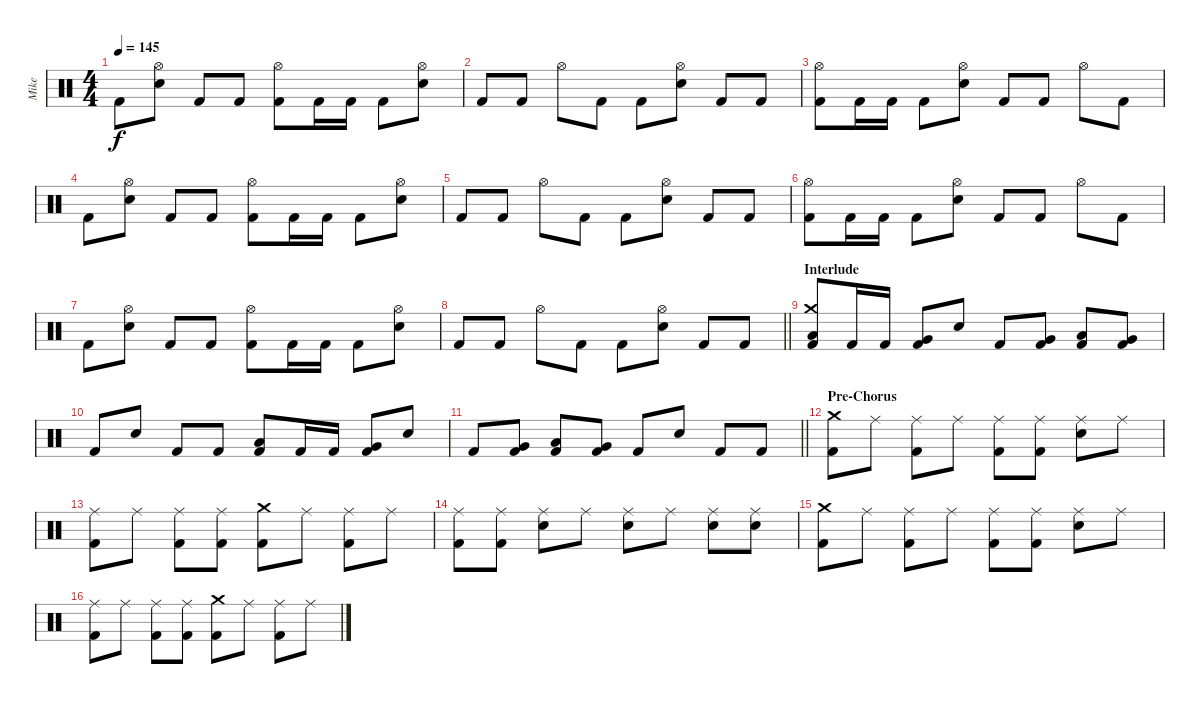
\track ("Mike" "Mike") {instrument percussion}
\staff {score}
\articulation defaults
\ts (4 4)
\tempo 145
\clef neutral
\ks c "Kick (hit) 2".8{dy f}
("Hi-Hat (open)" "Snare (hit) 2").8 "Kick (hit) 2".8 "Kick (hit) 2".8 ("Hi-Hat (open)" "Kick (hit) 2").8 "Kick (hit) 2".16 "Kick (hit) 2".16 "Kick (hit) 2".8 ("Hi-Hat (open)" "Snare (hit) 2").8 |
"Kick (hit) 2".8 "Kick (hit) 2".8 "Hi-Hat (open)".8 "Kick (hit) 2".8 "Kick (hit) 2".8 ("Hi-Hat (open)" "Snare (hit) 2").8 "Kick (hit) 2".8 "Kick (hit) 2".8 |
("Hi-Hat (open)" "Kick (hit) 2").8 "Kick (hit) 2".16 "Kick (hit) 2".16 "Kick (hit) 2".8 ("Hi-Hat (open)" "Snare (hit) 2").8 "Kick (hit) 2".8 "Kick (hit) 2".8 "Hi-Hat (open)".8 "Kick (hit) 2".8 |
"Kick (hit) 2".8 ("Hi-Hat (open)" "Snare (hit) 2").8 "Kick (hit) 2".8 "Kick (hit) 2".8 ("Hi-Hat (open)" "Kick (hit) 2").8 "Kick (hit) 2".16 "Kick (hit) 2".16 "Kick (hit) 2".8 ("Hi-Hat (open)" "Snare (hit) 2").8 |
"Kick (hit) 2".8 "Kick (hit) 2".8 "Hi-Hat (open)".8 "Kick (hit) 2".8 "Kick (hit) 2".8 ("Hi-Hat (open)" "Snare (hit) 2").8 "Kick (hit) 2".8 "Kick (hit) 2".8 |
("Hi-Hat (open)" "Kick (hit) 2").8 "Kick (hit) 2".16 "Kick (hit) 2".16 "Kick (hit) 2".8 ("Hi-Hat (open)" "Snare (hit) 2").8 "Kick (hit) 2".8 "Kick (hit) 2".8 "Hi-Hat (open)".8 "Kick (hit) 2".8 |
"Kick (hit) 2".8 ("Hi-Hat (open)" "Snare (hit) 2").8 "Kick (hit) 2".8 "Kick (hit) 2".8 ("Hi-Hat (open)" "Kick (hit) 2").8 "Kick (hit) 2".16 "Kick (hit) 2".16 "Kick (hit) 2".8 ("Hi-Hat (open)" "Snare (hit) 2").8 |
\barLineRight lightlight "Kick (hit) 2".8 "Kick (hit) 2".8 "Hi-Hat (open)".8 "Kick (hit) 2".8 "Kick (hit) 2".8
("Hi-Hat (open)" "Snare (hit) 2").8 "Kick (hit) 2".8 "Kick (hit) 2".8 |
\section ("" "Interlude")
("Crash medium (hit)" "Low Tom (hit)" "Kick (hit) 2").8 "Kick (hit) 2".16 "Kick (hit) 2".16 ("Very Low Tom (hit)" "Kick (hit) 2").8 "Snare (hit) 2".8 "Kick (hit) 2".8 ("Very Low Tom (hit)" "Kick (hit) 2").8 ("Low Floor Tom (hit)" "Kick (hit) 2").8 ("Very Low Tom (hit)" "Kick (hit) 2").8 |
"Kick (hit) 2".8 "Snare (hit) 2".8 "Kick (hit) 2".8 "Kick (hit) 2".8 ("Low Tom (hit)" "Kick (hit) 2").8 "Kick (hit) 2".16 "Kick (hit) 2".16 ("Very Low Tom (hit)" "Kick (hit) 2").8 "Snare (hit) 2".8 |
\barLineRight lightlight "Kick (hit) 2".8
("Very Low Tom (hit)" "Kick (hit) 2").8 ("Low Floor Tom (hit)" "Kick (hit) 2").8 ("Very Low Tom (hit)" "Kick (hit) 2").8 "Kick (hit) 2".8 "Snare (hit) 2".8 "Kick (hit) 2".8 "Kick (hit) 2".8 |
\section ("" "Pre-Chorus")
("Crash medium (hit)" "Kick (hit) 2").8 "Ride (middle)".8 ("Ride (middle)" "Kick (hit) 2").8 "Ride (middle)".8 ("Ride (middle)" "Kick (hit) 2").8 ("Ride (middle)" "Kick (hit) 2").8 ("Ride (middle)" "Snare (hit) 2").8 "Ride (middle)".8 |
("Ride (middle)" "Kick (hit) 2").8 "Ride (middle)".8 ("Ride (middle)" "Kick (hit) 2").8 ("Ride (middle)" "Kick (hit) 2").8 ("Crash medium (hit)" "Kick (hit) 2").8 "Ride (middle)".8 ("Ride (middle)" "Kick (hit) 2").8 "Ride (middle)".8 |
("Ride (middle)" "Kick (hit) 2").8 ("Ride (middle)" "Kick (hit) 2").8 ("Ride (middle)" "Snare (hit) 2").8 "Ride (middle)".8 ("Ride (middle)" "Snare (hit) 2").8 "Ride (middle)".8 ("Ride (middle)" "Snare (hit) 2").8 ("Ride (middle)" "Snare (hit) 2").8 |
("Crash medium (hit)" "Kick (hit) 2").8 "Ride (middle)".8 ("Ride (middle)" "Kick (hit) 2").8 "Ride (middle)".8 ("Ride (middle)" "Kick (hit) 2").8 ("Ride (middle)" "Kick (hit) 2").8 ("Ride (middle)" "Snare (hit) 2").8 "Ride (middle)".8 |
("Ride (middle)" "Kick (hit) 2").8 "Ride (middle)".8 ("Ride (middle)" "Kick (hit) 2").8 ("Ride (middle)" "Kick (hit) 2").8 ("Crash medium (hit)" "Kick (hit) 2").8 "Ride (middle)".8 ("Ride (middle)" "Kick (hit) 2").8 "Ride (middle)".8
